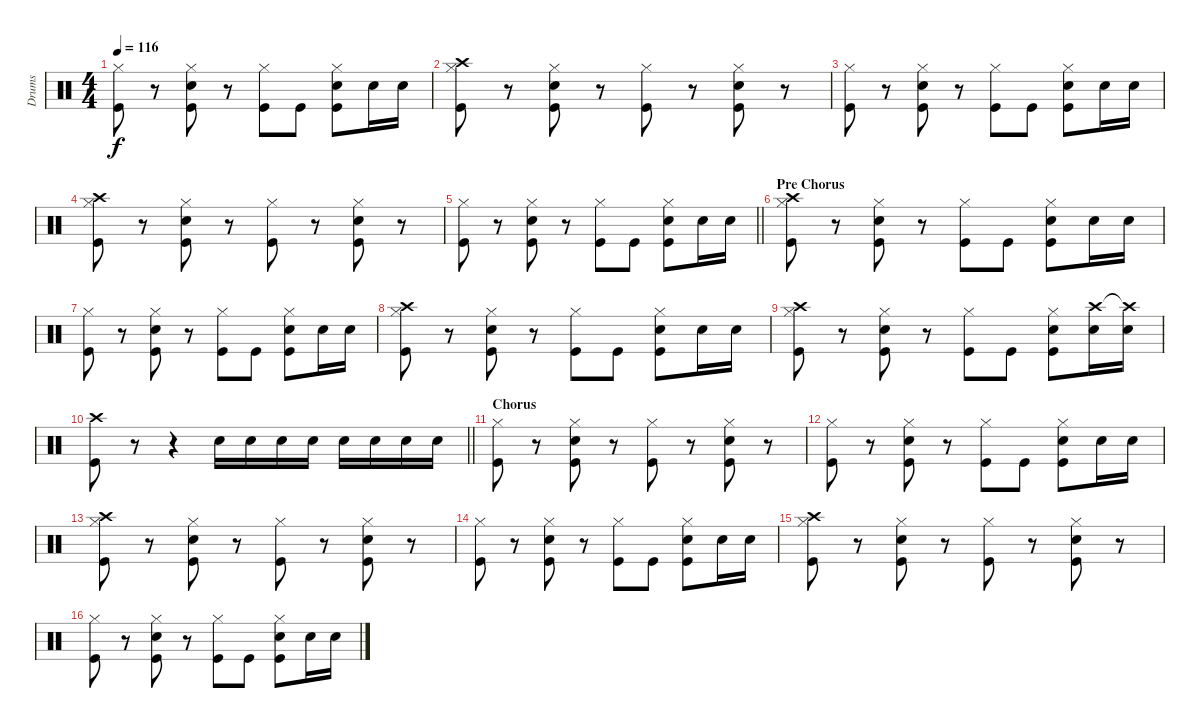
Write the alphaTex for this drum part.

\track ("Drums" "Drums") {instrument percussion}
\staff {score}
\articulation defaults
\ts (4 4)
\tempo 116
\clef neutral
\ks c
("Hi-Hat (closed)" "Kick (hit)").8{dy f} r.8 ("Hi-Hat (closed)" "Snare (hit) 2" "Kick (hit)").8 r.8 ("Hi-Hat (closed)" "Kick (hit)").8 "Kick (hit)".8 ("Hi-Hat (closed)" "Snare (hit) 2" "Kick (hit)").8 "Snare (hit) 2".16 "Snare (hit) 2".16 |
("Crash high (hit)" "Hi-Hat (closed)" "Kick (hit)").8 r.8 ("Hi-Hat (closed)" "Snare (hit) 2" "Kick (hit)").8 r.8 ("Hi-Hat (closed)" "Kick (hit)").8 r.8 ("Hi-Hat (closed)" "Snare (hit) 2" "Kick (hit)").8 r.8 |
("Hi-Hat (closed)" "Kick (hit)").8 r.8 ("Hi-Hat (closed)" "Snare (hit) 2" "Kick (hit)").8 r.8 ("Hi-Hat (closed)" "Kick (hit)").8 "Kick (hit)".8 ("Hi-Hat (closed)" "Snare (hit) 2" "Kick (hit)").8 "Snare (hit) 2".16 "Snare (hit) 2".16 |
("Crash high (hit)" "Hi-Hat (closed)" "Kick (hit)").8 r.8 ("Hi-Hat (closed)" "Snare (hit) 2" "Kick (hit)").8 r.8 ("Hi-Hat (closed)" "Kick (hit)").8 r.8 ("Hi-Hat (closed)" "Snare (hit) 2" "Kick (hit)").8 r.8 |
\barLineRight lightlight
("Hi-Hat (closed)" "Kick (hit)").8 r.8 ("Hi-Hat (closed)" "Snare (hit) 2" "Kick (hit)").8 r.8 ("Hi-Hat (closed)" "Kick (hit)").8 "Kick (hit)".8 ("Hi-Hat (closed)" "Snare (hit) 2" "Kick (hit)").8 "Snare (hit) 2".16 "Snare (hit) 2".16 |
\section ("" "Pre Chorus")
("Crash high (hit)" "Hi-Hat (closed)" "Kick (hit)").8 r.8 ("Hi-Hat (closed)" "Snare (hit) 2" "Kick (hit)").8 r.8 ("Hi-Hat (closed)" "Kick (hit)").8 "Kick (hit)".8 ("Hi-Hat (closed)" "Snare (hit) 2" "Kick (hit)").8 "Snare (hit) 2".16 "Snare (hit) 2".16 |
("Hi-Hat (closed)" "Kick (hit)").8 r.8 ("Hi-Hat (closed)" "Snare (hit) 2" "Kick (hit)").8 r.8 ("Hi-Hat (closed)" "Kick (hit)").8 "Kick (hit)".8 ("Hi-Hat (closed)" "Snare (hit) 2" "Kick (hit)").8 "Snare (hit) 2".16 "Snare (hit) 2".16 |
("Crash high (hit)" "Hi-Hat (closed)" "Kick (hit)").8 r.8 ("Hi-Hat (closed)" "Snare (hit) 2" "Kick (hit)").8 r.8 ("Hi-Hat (closed)" "Kick (hit)").8 "Kick (hit)".8 ("Hi-Hat (closed)" "Snare (hit) 2" "Kick (hit)").8 "Snare (hit) 2".16 "Snare (hit) 2".16 |
("Crash high (hit)" "Hi-Hat (closed)" "Kick (hit)").8 r.8 ("Hi-Hat (closed)" "Snare (hit) 2" "Kick (hit)").8 r.8 ("Hi-Hat (closed)" "Kick (hit)").8 "Kick (hit)".8 ("Hi-Hat (closed)" "Snare (hit) 2" "Kick (hit)").8 ("Crash high (hit)" "Snare (hit) 2").16 ("Crash high (hit)"{t} "Snare (hit) 2").16 |
\barLineRight lightlight
("Crash high (hit)" "Kick (hit)").8 r.8 r.4 "Snare (hit) 2".16 "Snare (hit) 2".16 "Snare (hit) 2".16 "Snare (hit) 2".16 "Snare (hit) 2".16 "Snare (hit) 2".16 "Snare (hit) 2".16 "Snare (hit) 2".16 |
\section ("" "Chorus")
("Hi-Hat (closed)" "Kick (hit)").8 r.8 ("Hi-Hat (closed)" "Snare (hit) 2" "Kick (hit)").8 r.8 ("Hi-Hat (closed)" "Kick (hit)").8 r.8 ("Hi-Hat (closed)" "Snare (hit) 2" "Kick (hit)").8 r.8 |
("Hi-Hat (closed)" "Kick (hit)").8 r.8 ("Hi-Hat (closed)" "Snare (hit) 2" "Kick (hit)").8 r.8 ("Hi-Hat (closed)" "Kick (hit)").8 "Kick (hit)".8 ("Hi-Hat (closed)" "Snare (hit) 2" "Kick (hit)").8 "Snare (hit) 2".16 "Snare (hit) 2".16 |
("Crash high (hit)" "Hi-Hat (closed)" "Kick (hit)").8 r.8 ("Hi-Hat (closed)" "Snare (hit) 2" "Kick (hit)").8 r.8 ("Hi-Hat (closed)" "Kick (hit)").8 r.8 ("Hi-Hat (closed)" "Snare (hit) 2" "Kick (hit)").8 r.8 |
("Hi-Hat (closed)" "Kick (hit)").8 r.8 ("Hi-Hat (closed)" "Snare (hit) 2" "Kick (hit)").8 r.8 ("Hi-Hat (closed)" "Kick (hit)").8 "Kick (hit)".8 ("Hi-Hat (closed)" "Snare (hit) 2" "Kick (hit)").8 "Snare (hit) 2".16 "Snare (hit) 2".16 |
("Crash high (hit)" "Hi-Hat (closed)" "Kick (hit)").8 r.8 ("Hi-Hat (closed)" "Snare (hit) 2" "Kick (hit)").8 r.8 ("Hi-Hat (closed)" "Kick (hit)").8 r.8 ("Hi-Hat (closed)" "Snare (hit) 2" "Kick (hit)").8 r.8 |
("Hi-Hat (closed)" "Kick (hit)").8 r.8 ("Hi-Hat (closed)" "Snare (hit) 2" "Kick (hit)").8 r.8 ("Hi-Hat (closed)" "Kick (hit)").8 "Kick (hit)".8 ("Hi-Hat (closed)" "Snare (hit) 2" "Kick (hit)").8 "Snare (hit) 2".16 "Snare (hit) 2".16
